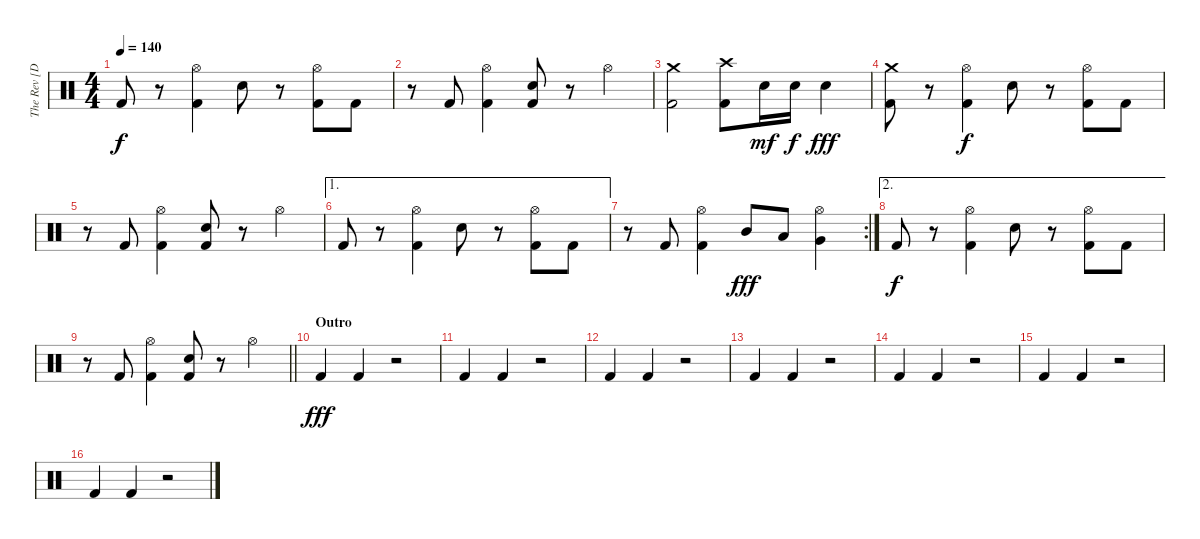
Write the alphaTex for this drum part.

\track ("The Rev [Drum]" "The Rev [D") {instrument percussion}
\staff {score}
\articulation defaults
\ts (4 4)
\tempo 140
\clef neutral
\ks c "Kick (hit) 2".8{dy f}
r.8 ("Hi-Hat (open)" "Kick (hit) 2").4 "Snare (hit) 2".8 r.8 ("Hi-Hat (open)" "Kick (hit) 2").8 "Kick (hit) 2".8 |
r.8 "Kick (hit) 2".8 ("Hi-Hat (open)" "Kick (hit) 2").4 ("Snare (hit) 2" "Kick (hit) 2").8 r.8 "Hi-Hat (open)".4 |
("Crash medium (hit)" "Kick (hit) 2").2 ("Crash high (hit)" "Kick (hit) 2").8 "Snare (hit) 2".16{dy mf} "Snare (hit) 2".16{dy f} "Snare (hit) 2".4{dy fff} |
("Crash medium (hit)" "Kick (hit) 2").8 r.8 ("Hi-Hat (open)" "Kick (hit) 2").4{dy f} "Snare (hit) 2".8 r.8 ("Hi-Hat (open)" "Kick (hit) 2").8 "Kick (hit) 2".8 |
r.8 "Kick (hit) 2".8 ("Hi-Hat (open)" "Kick (hit) 2").4 ("Snare (hit) 2" "Kick (hit) 2").8 r.8 "Hi-Hat (open)".4 |
\ae 1 "Kick (hit) 2".8
r.8 ("Hi-Hat (open)" "Kick (hit) 2").4 "Snare (hit) 2".8 r.8 ("Hi-Hat (open)" "Kick (hit) 2").8 "Kick (hit) 2".8 |
\rc 2
r.8 "Kick (hit) 2".8 ("Hi-Hat (open)" "Kick (hit) 2").4 "Mid Tom (hit)".8{dy fff} "Low Tom (hit)".8 ("Hi-Hat (open)" "Very Low Tom (hit)").4 |
\ae 2 "Kick (hit) 2".8{dy f}
r.8 ("Hi-Hat (open)" "Kick (hit) 2").4 "Snare (hit) 2".8 r.8 ("Hi-Hat (open)" "Kick (hit) 2").8 "Kick (hit) 2".8 |
\barLineRight lightlight
r.8 "Kick (hit) 2".8 ("Hi-Hat (open)" "Kick (hit) 2").4 ("Snare (hit) 2" "Kick (hit) 2").8 r.8 "Hi-Hat (open)".4 |
\section ("" "Outro")
"Kick (hit) 2".4{dy fff} "Kick (hit) 2".4 r.2 |
"Kick (hit) 2".4 "Kick (hit) 2".4 r.2 |
"Kick (hit) 2".4 "Kick (hit) 2".4 r.2 |
"Kick (hit) 2".4 "Kick (hit) 2".4 r.2 |
"Kick (hit) 2".4 "Kick (hit) 2".4 r.2 |
"Kick (hit) 2".4 "Kick (hit) 2".4 r.2 |
"Kick (hit) 2".4 "Kick (hit) 2".4 r.2
